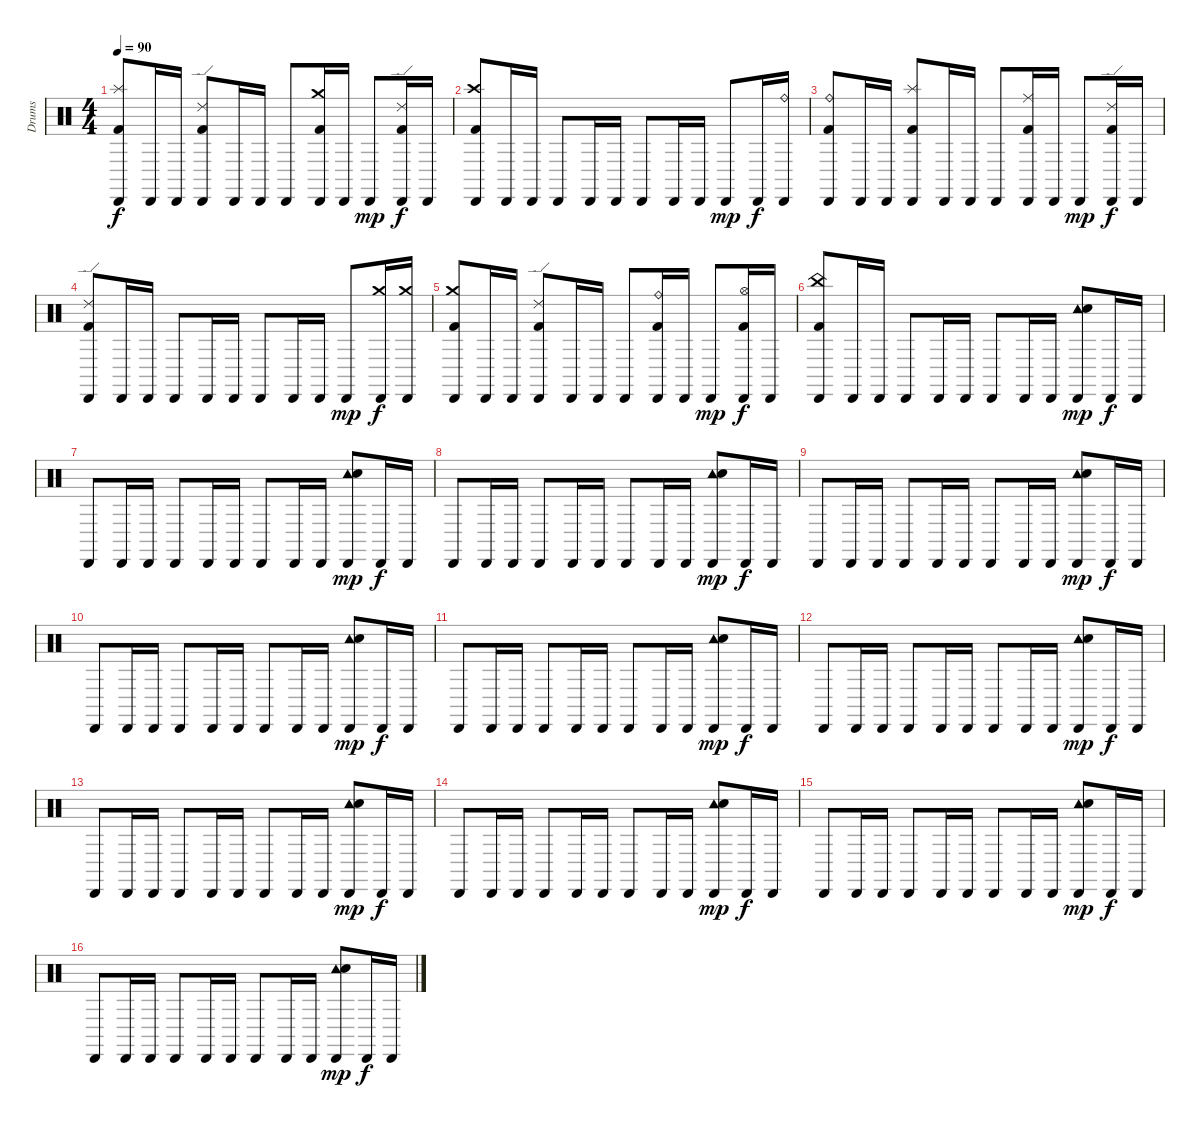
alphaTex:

\track ("Drums" "Drums") {instrument percussion}
\staff {score}
\articulation defaults
\ts (4 4)
\tempo 90
\clef neutral
\ks c
("Splash (hit)" "Cabasa (hit)" "Kick (hit) 2").8{dy f} "Cabasa (hit)".16 "Cabasa (hit)".16 ("Ride (edge) 2" "Cabasa (hit)" "Kick (hit) 2").8 "Cabasa (hit)".16 "Cabasa (hit)".16 "Cabasa (hit)".8 ("Crash medium (hit)" "Cabasa (hit)" "Kick (hit) 2").16 "Cabasa (hit)".16 "Cabasa (hit)".8{dy mp} ("Ride (edge) 2" "Cabasa (hit)" "Kick (hit) 2").16{dy f} "Cabasa (hit)".16 |
("Crash high (hit)" "Cabasa (hit)" "Kick (hit) 2").8 "Cabasa (hit)".16 "Cabasa (hit)".16 "Cabasa (hit)".8 "Cabasa (hit)".16 "Cabasa (hit)".16 "Cabasa (hit)".8 "Cabasa (hit)".16 "Cabasa (hit)".16 "Cabasa (hit)".8{dy mp} "Cabasa (hit)".16{dy f} ("Ride (bell)" "Cabasa (hit)").16 |
("Ride (bell)" "Cabasa (hit)" "Kick (hit) 2").8 "Cabasa (hit)".16 "Cabasa (hit)".16 ("Splash (hit)" "Cabasa (hit)" "Kick (hit) 2").8 "Cabasa (hit)".16 "Cabasa (hit)".16 "Cabasa (hit)".8 ("Ride (middle)" "Cabasa (hit)" "Kick (hit) 2").16 "Cabasa (hit)".16 "Cabasa (hit)".8{dy mp} ("Ride (edge) 2" "Cabasa (hit)" "Kick (hit) 2").16{dy f} "Cabasa (hit)".16 |
("Ride (edge) 2" "Cabasa (hit)" "Kick (hit) 2").8 "Cabasa (hit)".16 "Cabasa (hit)".16 "Cabasa (hit)".8 "Cabasa (hit)".16 "Cabasa (hit)".16 "Cabasa (hit)".8 "Cabasa (hit)".16 "Cabasa (hit)".16 "Cabasa (hit)".8{dy mp} ("Crash medium (hit)" "Cabasa (hit)").16{dy f} ("Crash medium (hit)" "Cabasa (hit)").16 |
("Crash medium (hit)" "Cabasa (hit)" "Kick (hit) 2").8 "Cabasa (hit)".16 "Cabasa (hit)".16 ("Ride (edge) 2" "Cabasa (hit)" "Kick (hit) 2").8 "Cabasa (hit)".16 "Cabasa (hit)".16 "Cabasa (hit)".8 ("Ride (bell)" "Cabasa (hit)" "Kick (hit) 2").16 "Cabasa (hit)".16 "Cabasa (hit)".8{dy mp} ("Hi-Hat (open)" "Cabasa (hit)" "Kick (hit) 2").16{dy f} "Cabasa (hit)".16 |
("China (hit)" "Cabasa (hit)" "Kick (hit) 2").8 "Cabasa (hit)".16 "Cabasa (hit)".16 "Cabasa (hit)".8 "Cabasa (hit)".16 "Cabasa (hit)".16 "Cabasa (hit)".8 "Cabasa (hit)".16 "Cabasa (hit)".16 ("Tambourine (hit)" "Cabasa (hit)" "Electric Snare (hit)").8{dy mp} "Cabasa (hit)".16{dy f} "Cabasa (hit)".16 |
"Cabasa (hit)".8 "Cabasa (hit)".16 "Cabasa (hit)".16 "Cabasa (hit)".8 "Cabasa (hit)".16 "Cabasa (hit)".16 "Cabasa (hit)".8 "Cabasa (hit)".16 "Cabasa (hit)".16 ("Tambourine (hit)" "Cabasa (hit)" "Electric Snare (hit)").8{dy mp} "Cabasa (hit)".16{dy f} "Cabasa (hit)".16 |
"Cabasa (hit)".8 "Cabasa (hit)".16 "Cabasa (hit)".16 "Cabasa (hit)".8 "Cabasa (hit)".16 "Cabasa (hit)".16 "Cabasa (hit)".8 "Cabasa (hit)".16 "Cabasa (hit)".16 ("Tambourine (hit)" "Cabasa (hit)" "Electric Snare (hit)").8{dy mp} "Cabasa (hit)".16{dy f} "Cabasa (hit)".16 |
"Cabasa (hit)".8 "Cabasa (hit)".16 "Cabasa (hit)".16 "Cabasa (hit)".8 "Cabasa (hit)".16 "Cabasa (hit)".16 "Cabasa (hit)".8 "Cabasa (hit)".16 "Cabasa (hit)".16 ("Tambourine (hit)" "Cabasa (hit)" "Electric Snare (hit)").8{dy mp} "Cabasa (hit)".16{dy f} "Cabasa (hit)".16 |
"Cabasa (hit)".8 "Cabasa (hit)".16 "Cabasa (hit)".16 "Cabasa (hit)".8 "Cabasa (hit)".16 "Cabasa (hit)".16 "Cabasa (hit)".8 "Cabasa (hit)".16 "Cabasa (hit)".16 ("Tambourine (hit)" "Cabasa (hit)" "Electric Snare (hit)").8{dy mp} "Cabasa (hit)".16{dy f} "Cabasa (hit)".16 |
"Cabasa (hit)".8 "Cabasa (hit)".16 "Cabasa (hit)".16 "Cabasa (hit)".8 "Cabasa (hit)".16 "Cabasa (hit)".16 "Cabasa (hit)".8 "Cabasa (hit)".16 "Cabasa (hit)".16 ("Tambourine (hit)" "Cabasa (hit)" "Electric Snare (hit)").8{dy mp} "Cabasa (hit)".16{dy f} "Cabasa (hit)".16 |
"Cabasa (hit)".8 "Cabasa (hit)".16 "Cabasa (hit)".16 "Cabasa (hit)".8 "Cabasa (hit)".16 "Cabasa (hit)".16 "Cabasa (hit)".8 "Cabasa (hit)".16 "Cabasa (hit)".16 ("Tambourine (hit)" "Cabasa (hit)" "Electric Snare (hit)").8{dy mp} "Cabasa (hit)".16{dy f} "Cabasa (hit)".16 |
"Cabasa (hit)".8 "Cabasa (hit)".16 "Cabasa (hit)".16 "Cabasa (hit)".8 "Cabasa (hit)".16 "Cabasa (hit)".16 "Cabasa (hit)".8 "Cabasa (hit)".16 "Cabasa (hit)".16 ("Tambourine (hit)" "Cabasa (hit)" "Electric Snare (hit)").8{dy mp} "Cabasa (hit)".16{dy f} "Cabasa (hit)".16 |
"Cabasa (hit)".8 "Cabasa (hit)".16 "Cabasa (hit)".16 "Cabasa (hit)".8 "Cabasa (hit)".16 "Cabasa (hit)".16 "Cabasa (hit)".8 "Cabasa (hit)".16 "Cabasa (hit)".16 ("Tambourine (hit)" "Cabasa (hit)" "Electric Snare (hit)").8{dy mp} "Cabasa (hit)".16{dy f} "Cabasa (hit)".16 |
"Cabasa (hit)".8 "Cabasa (hit)".16 "Cabasa (hit)".16 "Cabasa (hit)".8 "Cabasa (hit)".16 "Cabasa (hit)".16 "Cabasa (hit)".8 "Cabasa (hit)".16 "Cabasa (hit)".16 ("Tambourine (hit)" "Cabasa (hit)" "Electric Snare (hit)").8{dy mp} "Cabasa (hit)".16{dy f} "Cabasa (hit)".16 |
"Cabasa (hit)".8 "Cabasa (hit)".16 "Cabasa (hit)".16 "Cabasa (hit)".8 "Cabasa (hit)".16 "Cabasa (hit)".16 "Cabasa (hit)".8 "Cabasa (hit)".16 "Cabasa (hit)".16 ("Tambourine (hit)" "Cabasa (hit)" "Electric Snare (hit)").8{dy mp} "Cabasa (hit)".16{dy f} "Cabasa (hit)".16
